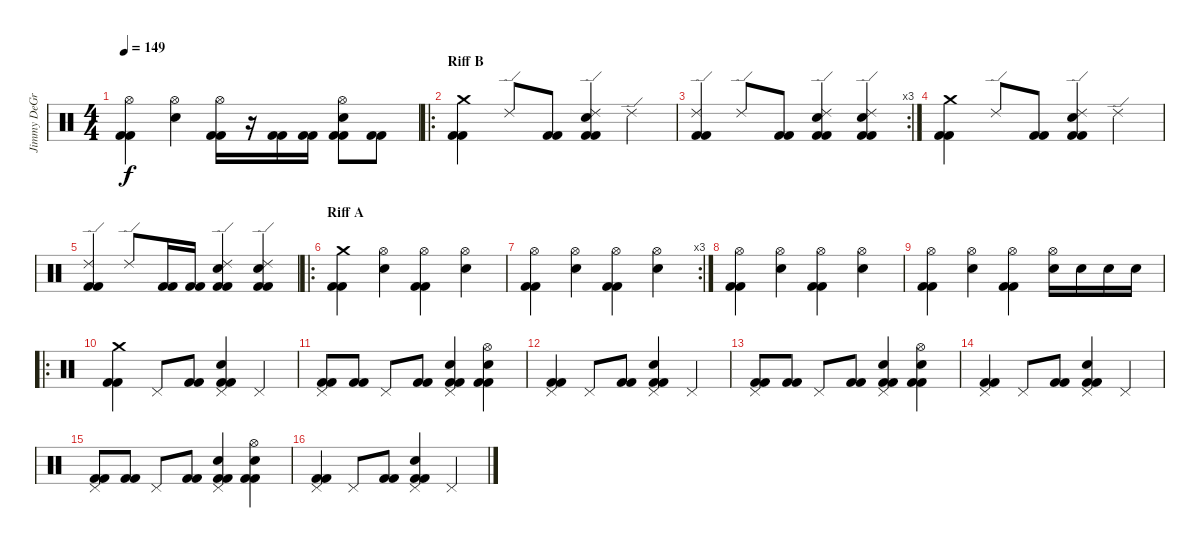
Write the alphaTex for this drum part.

\track ("Jimmy DeGrasso" "Jimmy DeGr") {instrument percussion}
\staff {score}
\articulation defaults
\ts (4 4)
\tempo 149
\clef neutral
\ks c
("Hi-Hat (open)" "Kick (hit) 2" "Kick (hit) 2").4{dy f} ("Hi-Hat (open)" "Snare (hit) 2").4 ("Hi-Hat (open)" "Kick (hit) 2" "Kick (hit) 2").16 r.16 ("Kick (hit) 2" "Kick (hit) 2").16 ("Kick (hit) 2" "Kick (hit) 2").16 ("Hi-Hat (open)" "Snare (hit) 2" "Kick (hit) 2" "Kick (hit) 2").8 ("Kick (hit) 2" "Kick (hit) 2").8 |
\ro
\section ("" "Riff B")
("Crash medium (hit)" "Kick (hit) 2" "Kick (hit) 2").4 "Ride (edge) 2".8 ("Kick (hit) 2" "Kick (hit) 2").8 ("Ride (edge) 2" "Snare (hit) 2" "Kick (hit) 2" "Kick (hit) 2").4 "Ride (edge) 2".4 |
\rc 3
("Ride (edge) 2" "Kick (hit) 2" "Kick (hit) 2").4 "Ride (edge) 2".8 ("Kick (hit) 2" "Kick (hit) 2").8 ("Ride (edge) 2" "Snare (hit) 2" "Kick (hit) 2" "Kick (hit) 2").4 ("Ride (edge) 2" "Snare (hit) 2" "Kick (hit) 2" "Kick (hit) 2").4 |
("Crash medium (hit)" "Kick (hit) 2" "Kick (hit) 2").4 "Ride (edge) 2".8 ("Kick (hit) 2" "Kick (hit) 2").8 ("Ride (edge) 2" "Snare (hit) 2" "Kick (hit) 2" "Kick (hit) 2").4 "Ride (edge) 2".4 |
("Ride (edge) 2" "Kick (hit) 2" "Kick (hit) 2").4 "Ride (edge) 2".8 ("Kick (hit) 2" "Kick (hit) 2").16 ("Kick (hit) 2" "Kick (hit) 2").16 ("Ride (edge) 2" "Snare (hit) 2" "Kick (hit) 2" "Kick (hit) 2").4 ("Ride (edge) 2" "Snare (hit) 2" "Kick (hit) 2" "Kick (hit) 2").4 |
\ro
\section ("" "Riff A")
("Crash medium (hit)" "Kick (hit) 2" "Kick (hit) 2").4 ("Hi-Hat (open)" "Snare (hit) 2").4 ("Hi-Hat (open)" "Kick (hit) 2" "Kick (hit) 2").4 ("Hi-Hat (open)" "Snare (hit) 2").4 |
\rc 3
("Hi-Hat (open)" "Kick (hit) 2" "Kick (hit) 2").4 ("Hi-Hat (open)" "Snare (hit) 2").4 ("Hi-Hat (open)" "Kick (hit) 2" "Kick (hit) 2").4 ("Hi-Hat (open)" "Snare (hit) 2").4 |
("Hi-Hat (open)" "Kick (hit) 2" "Kick (hit) 2").4 ("Hi-Hat (open)" "Snare (hit) 2").4 ("Hi-Hat (open)" "Kick (hit) 2" "Kick (hit) 2").4 ("Hi-Hat (open)" "Snare (hit) 2").4 |
("Hi-Hat (open)" "Kick (hit) 2" "Kick (hit) 2").4 ("Hi-Hat (open)" "Snare (hit) 2").4 ("Hi-Hat (open)" "Kick (hit) 2" "Kick (hit) 2").4 ("Hi-Hat (open)" "Snare (hit) 2").16 "Snare (hit) 2".16 "Snare (hit) 2".16 "Snare (hit) 2".16 |
\ro
("Crash medium (hit)" "Kick (hit) 2" "Kick (hit) 2").4 "Pedal Hi-Hat (hit)".8 ("Kick (hit) 2" "Kick (hit) 2").8 ("Pedal Hi-Hat (hit)" "Snare (hit) 2" "Kick (hit) 2" "Kick (hit) 2").4 "Pedal Hi-Hat (hit)".4 |
("Pedal Hi-Hat (hit)" "Kick (hit) 2" "Kick (hit) 2").8 ("Kick (hit) 2" "Kick (hit) 2").8 "Pedal Hi-Hat (hit)".8 ("Kick (hit) 2" "Kick (hit) 2").8 ("Pedal Hi-Hat (hit)" "Snare (hit) 2" "Kick (hit) 2" "Kick (hit) 2").4 ("Hi-Hat (open)" "Snare (hit) 2" "Kick (hit) 2" "Kick (hit) 2").4 |
("Pedal Hi-Hat (hit)" "Kick (hit) 2" "Kick (hit) 2").4 "Pedal Hi-Hat (hit)".8 ("Kick (hit) 2" "Kick (hit) 2").8 ("Pedal Hi-Hat (hit)" "Snare (hit) 2" "Kick (hit) 2" "Kick (hit) 2").4 "Pedal Hi-Hat (hit)".4 |
("Pedal Hi-Hat (hit)" "Kick (hit) 2" "Kick (hit) 2").8 ("Kick (hit) 2" "Kick (hit) 2").8 "Pedal Hi-Hat (hit)".8 ("Kick (hit) 2" "Kick (hit) 2").8 ("Pedal Hi-Hat (hit)" "Snare (hit) 2" "Kick (hit) 2" "Kick (hit) 2").4 ("Hi-Hat (open)" "Snare (hit) 2" "Kick (hit) 2" "Kick (hit) 2").4 |
("Pedal Hi-Hat (hit)" "Kick (hit) 2" "Kick (hit) 2").4 "Pedal Hi-Hat (hit)".8 ("Kick (hit) 2" "Kick (hit) 2").8 ("Pedal Hi-Hat (hit)" "Snare (hit) 2" "Kick (hit) 2" "Kick (hit) 2").4 "Pedal Hi-Hat (hit)".4 |
("Pedal Hi-Hat (hit)" "Kick (hit) 2" "Kick (hit) 2").8 ("Kick (hit) 2" "Kick (hit) 2").8 "Pedal Hi-Hat (hit)".8 ("Kick (hit) 2" "Kick (hit) 2").8 ("Pedal Hi-Hat (hit)" "Snare (hit) 2" "Kick (hit) 2" "Kick (hit) 2").4 ("Hi-Hat (open)" "Snare (hit) 2" "Kick (hit) 2" "Kick (hit) 2").4 |
("Pedal Hi-Hat (hit)" "Kick (hit) 2" "Kick (hit) 2").4 "Pedal Hi-Hat (hit)".8 ("Kick (hit) 2" "Kick (hit) 2").8 ("Pedal Hi-Hat (hit)" "Snare (hit) 2" "Kick (hit) 2" "Kick (hit) 2").4 "Pedal Hi-Hat (hit)".4
